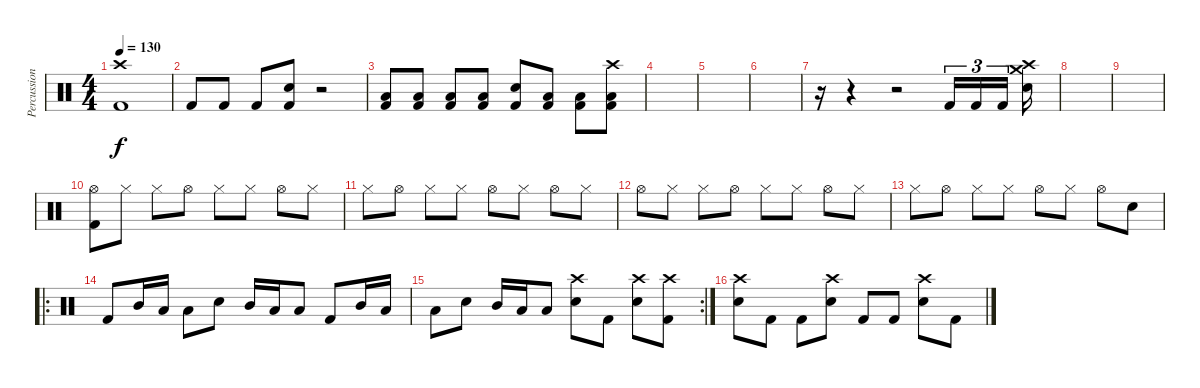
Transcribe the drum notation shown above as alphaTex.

\track ("Percussion" "Percussion") {instrument percussion}
\staff {score}
\articulation defaults
\ts (4 4)
\tempo 130
\clef neutral
\ks c
("Crash high (hit)" "Kick (hit) 2").1{dy f} |
"Kick (hit) 2".8{volume 10} "Kick (hit) 2".8 "Kick (hit) 2".8 ("Electric Snare (hit)" "Kick (hit) 2").8 r.2 |
("Low Floor Tom (hit)" "Kick (hit) 2").8 ("Low Floor Tom (hit)" "Kick (hit) 2").8 ("Low Floor Tom (hit)" "Kick (hit) 2").8 ("Low Floor Tom (hit)" "Kick (hit) 2").8 ("Electric Snare (hit)" "Kick (hit) 2").8 ("Low Floor Tom (hit)" "Kick (hit) 2").8 ("Low Floor Tom (hit)" "Kick (hit) 2").8 ("Crash high (hit)" "Low Floor Tom (hit)" "Kick (hit) 2").8 |
|
|
|
r.16 r.4 r.2 "Kick (hit) 2".16{tu (3 2)} "Kick (hit) 2".16{tu (3 2)} "Kick (hit) 2".16{tu (3 2)} ("Crash medium (hit)" "Crash high (hit)" "Electric Snare (hit)").16 |
|
|
("Hi-Hat (open)" "Kick (hit) 2").8 "Hi-Hat (closed)".8 "Hi-Hat (closed)".8 "Hi-Hat (open)".8 "Hi-Hat (closed)".8 "Hi-Hat (closed)".8 "Hi-Hat (open)".8 "Hi-Hat (closed)".8 |
"Hi-Hat (closed)".8 "Hi-Hat (open)".8 "Hi-Hat (closed)".8 "Hi-Hat (closed)".8 "Hi-Hat (open)".8 "Hi-Hat (closed)".8 "Hi-Hat (open)".8 "Hi-Hat (closed)".8 |
"Hi-Hat (open)".8 "Hi-Hat (closed)".8 "Hi-Hat (closed)".8 "Hi-Hat (open)".8 "Hi-Hat (closed)".8 "Hi-Hat (closed)".8 "Hi-Hat (open)".8 "Hi-Hat (closed)".8 |
"Hi-Hat (closed)".8 "Hi-Hat (open)".8 "Hi-Hat (closed)".8 "Hi-Hat (closed)".8 "Hi-Hat (open)".8 "Hi-Hat (closed)".8 "Hi-Hat (open)".8 "Electric Snare (hit)".8 |
\ro "Kick (hit) 2".8 "Mid Tom (hit)".16 "Low Tom (hit)".16 "Low Floor Tom (hit)".8 "Electric Snare (hit)".8 "Mid Tom (hit)".16 "Low Tom (hit)".16 "Low Floor Tom (hit)".8 "Kick (hit) 2".8 "Mid Tom (hit)".16 "Low Tom (hit)".16
|
\rc 2 "Low Floor Tom (hit)".8 "Electric Snare (hit)".8 "Mid Tom (hit)".16 "Low Tom (hit)".16 "Low Floor Tom (hit)".8
("Crash high (hit)" "Electric Snare (hit)").8 "Kick (hit) 2".8 ("Crash high (hit)" "Electric Snare (hit)").8 ("Crash high (hit)" "Kick (hit) 2").8 |
("Crash high (hit)" "Electric Snare (hit)").8 "Kick (hit) 2".8 "Kick (hit) 2".8 ("Crash high (hit)" "Electric Snare (hit)").8 "Kick (hit) 2".8 "Kick (hit) 2".8 ("Crash high (hit)" "Electric Snare (hit)").8 "Kick (hit) 2".8
